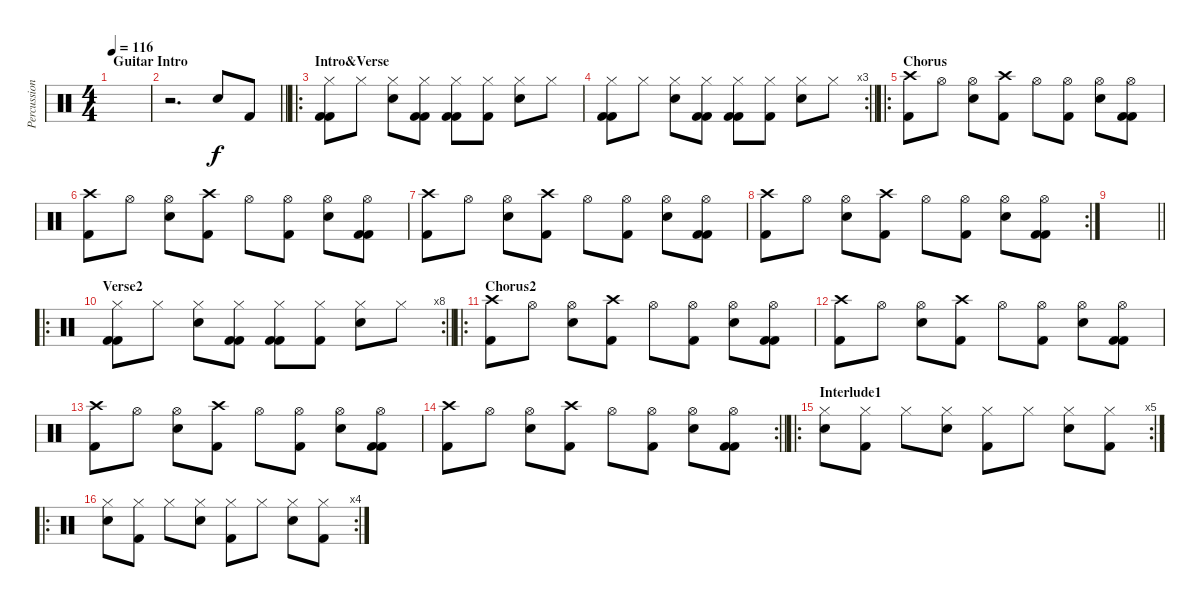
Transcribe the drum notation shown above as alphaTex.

\track ("Percussioni" "Percussion") {instrument percussion}
\staff {score}
\articulation defaults
\ts (4 4)
\section ("" "Guitar Intro")
\tempo 116
\clef neutral
\ks c
|
\barLineRight lightlight
r.2{d} "Electric Snare (hit)".8 "Kick (hit) 2".8 |
\ro
\section ("" "Intro&Verse")
("Hi-Hat (closed)" "Kick (hit) 2" "Kick (hit) 2").8 "Hi-Hat (closed)".8 ("Hi-Hat (closed)" "Electric Snare (hit)").8 ("Hi-Hat (closed)" "Kick (hit) 2" "Kick (hit) 2").8 ("Kick (hit) 2" "Kick (hit) 2" "Hi-Hat (closed)").8 ("Hi-Hat (closed)" "Kick (hit) 2").8 ("Hi-Hat (closed)" "Electric Snare (hit)").8 "Hi-Hat (closed)".8 |
\rc 3
\barLineRight lightlight
("Hi-Hat (closed)" "Kick (hit) 2" "Kick (hit) 2").8 "Hi-Hat (closed)".8 ("Hi-Hat (closed)" "Electric Snare (hit)").8 ("Hi-Hat (closed)" "Kick (hit) 2" "Kick (hit) 2").8 ("Kick (hit) 2" "Kick (hit) 2" "Hi-Hat (closed)").8 ("Hi-Hat (closed)" "Kick (hit) 2").8 ("Hi-Hat (closed)" "Electric Snare (hit)").8 "Hi-Hat (closed)".8 |
\ro
\section ("" "Chorus")
("Crash high (hit)" "Kick (hit) 2").8 "Hi-Hat (open)".8 ("Hi-Hat (open)" "Electric Snare (hit)").8 ("Crash high (hit)" "Kick (hit) 2").8 "Hi-Hat (open)".8 ("Hi-Hat (open)" "Kick (hit) 2").8 ("Hi-Hat (open)" "Electric Snare (hit)").8 ("Hi-Hat (open)" "Kick (hit) 2" "Kick (hit) 2").8 |
("Crash high (hit)" "Kick (hit) 2").8 "Hi-Hat (open)".8 ("Hi-Hat (open)" "Electric Snare (hit)").8 ("Crash high (hit)" "Kick (hit) 2").8 "Hi-Hat (open)".8 ("Hi-Hat (open)" "Kick (hit) 2").8 ("Hi-Hat (open)" "Electric Snare (hit)").8 ("Hi-Hat (open)" "Kick (hit) 2" "Kick (hit) 2").8 |
("Crash high (hit)" "Kick (hit) 2").8 "Hi-Hat (open)".8 ("Hi-Hat (open)" "Electric Snare (hit)").8 ("Crash high (hit)" "Kick (hit) 2").8 "Hi-Hat (open)".8 ("Hi-Hat (open)" "Kick (hit) 2").8 ("Hi-Hat (open)" "Electric Snare (hit)").8 ("Hi-Hat (open)" "Kick (hit) 2" "Kick (hit) 2").8 |
\rc 2
("Crash high (hit)" "Kick (hit) 2").8 "Hi-Hat (open)".8 ("Hi-Hat (open)" "Electric Snare (hit)").8 ("Crash high (hit)" "Kick (hit) 2").8 "Hi-Hat (open)".8 ("Hi-Hat (open)" "Kick (hit) 2").8 ("Hi-Hat (open)" "Electric Snare (hit)").8 ("Hi-Hat (open)" "Kick (hit) 2" "Kick (hit) 2").8 |
\barLineRight lightlight
|
\ro
\rc 8
\section ("" "Verse2")
\barLineRight lightlight
("Hi-Hat (closed)" "Kick (hit) 2" "Kick (hit) 2").8 "Hi-Hat (closed)".8 ("Hi-Hat (closed)" "Electric Snare (hit)").8 ("Hi-Hat (closed)" "Kick (hit) 2" "Kick (hit) 2").8 ("Kick (hit) 2" "Kick (hit) 2" "Hi-Hat (closed)").8 ("Hi-Hat (closed)" "Kick (hit) 2").8 ("Hi-Hat (closed)" "Electric Snare (hit)").8 "Hi-Hat (closed)".8 |
\ro
\section ("" "Chorus2")
("Crash high (hit)" "Kick (hit) 2").8 "Hi-Hat (open)".8 ("Hi-Hat (open)" "Electric Snare (hit)").8 ("Crash high (hit)" "Kick (hit) 2").8 "Hi-Hat (open)".8 ("Hi-Hat (open)" "Kick (hit) 2").8 ("Hi-Hat (open)" "Electric Snare (hit)").8 ("Hi-Hat (open)" "Kick (hit) 2" "Kick (hit) 2").8 |
("Crash high (hit)" "Kick (hit) 2").8 "Hi-Hat (open)".8 ("Hi-Hat (open)" "Electric Snare (hit)").8 ("Crash high (hit)" "Kick (hit) 2").8 "Hi-Hat (open)".8 ("Hi-Hat (open)" "Kick (hit) 2").8 ("Hi-Hat (open)" "Electric Snare (hit)").8 ("Hi-Hat (open)" "Kick (hit) 2" "Kick (hit) 2").8 |
("Crash high (hit)" "Kick (hit) 2").8 "Hi-Hat (open)".8 ("Hi-Hat (open)" "Electric Snare (hit)").8 ("Crash high (hit)" "Kick (hit) 2").8 "Hi-Hat (open)".8 ("Hi-Hat (open)" "Kick (hit) 2").8 ("Hi-Hat (open)" "Electric Snare (hit)").8 ("Hi-Hat (open)" "Kick (hit) 2" "Kick (hit) 2").8 |
\rc 2
\barLineRight lightlight
("Crash high (hit)" "Kick (hit) 2").8 "Hi-Hat (open)".8 ("Hi-Hat (open)" "Electric Snare (hit)").8 ("Crash high (hit)" "Kick (hit) 2").8 "Hi-Hat (open)".8 ("Hi-Hat (open)" "Kick (hit) 2").8 ("Hi-Hat (open)" "Electric Snare (hit)").8 ("Hi-Hat (open)" "Kick (hit) 2" "Kick (hit) 2").8 |
\ro
\rc 5
\section ("" "Interlude1")
("Hi-Hat (closed)" "Electric Snare (hit)").8 ("Hi-Hat (closed)" "Kick (hit) 2").8 "Hi-Hat (closed)".8 ("Hi-Hat (closed)" "Electric Snare (hit)").8 ("Hi-Hat (closed)" "Kick (hit) 2").8 "Hi-Hat (closed)".8 ("Hi-Hat (closed)" "Electric Snare (hit)").8 ("Hi-Hat (closed)" "Kick (hit) 2").8 |
\ro
\rc 4
("Hi-Hat (closed)" "Electric Snare (hit)").8 ("Hi-Hat (closed)" "Kick (hit) 2").8 "Hi-Hat (closed)".8 ("Hi-Hat (closed)" "Electric Snare (hit)").8 ("Hi-Hat (closed)" "Kick (hit) 2").8 "Hi-Hat (closed)".8 ("Hi-Hat (closed)" "Electric Snare (hit)").8 ("Hi-Hat (closed)" "Kick (hit) 2").8
